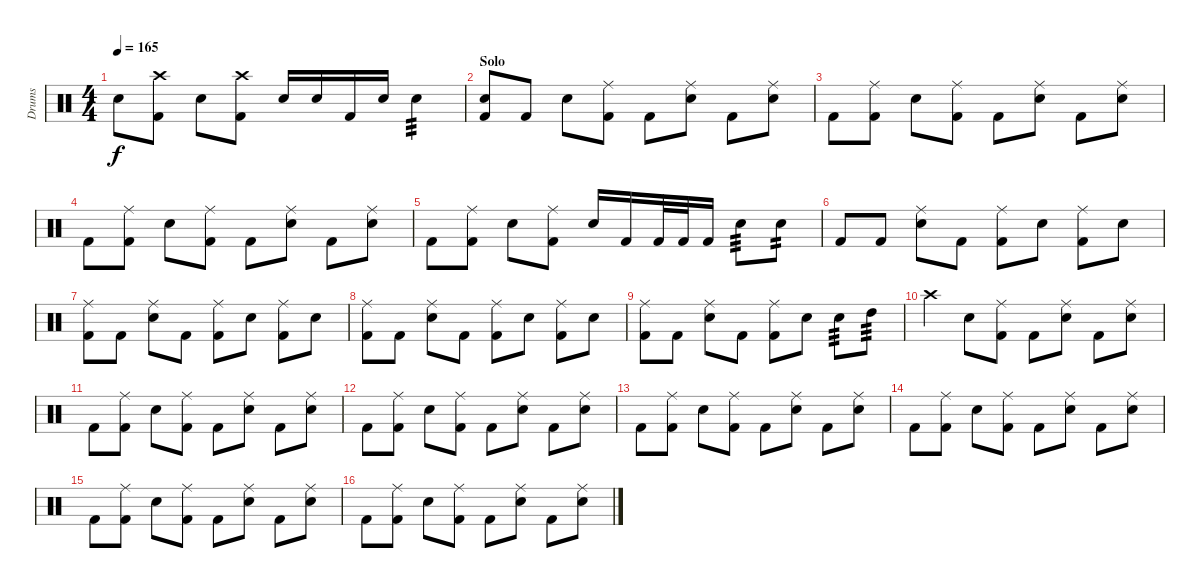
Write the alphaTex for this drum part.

\track ("Drums" "Drums") {instrument percussion}
\staff {score}
\articulation defaults
\ts (4 4)
\tempo 165
\clef neutral
\ks c "Electric Snare (hit)".8{dy f}
("Crash high (hit)" "Kick (hit) 2").8 "Electric Snare (hit)".8 ("Crash high (hit)" "Kick (hit) 2").8 "Electric Snare (hit)".16 "Electric Snare (hit)".16 "Kick (hit) 2".16 "Electric Snare (hit)".16 "Electric Snare (hit)".4{tp 3} |
\section ("" "Solo")
("Electric Snare (hit)" "Kick (hit) 2").8 "Kick (hit) 2".8 "Electric Snare (hit)".8 ("Ride (middle)" "Kick (hit) 2").8 "Kick (hit) 2".8 ("Ride (middle)" "Electric Snare (hit)").8 "Kick (hit) 2".8 ("Ride (middle)" "Electric Snare (hit)").8 |
"Kick (hit) 2".8 ("Ride (middle)" "Kick (hit) 2").8 "Electric Snare (hit)".8 ("Ride (middle)" "Kick (hit) 2").8 "Kick (hit) 2".8 ("Ride (middle)" "Electric Snare (hit)").8 "Kick (hit) 2".8 ("Ride (middle)" "Electric Snare (hit)").8 |
"Kick (hit) 2".8 ("Ride (middle)" "Kick (hit) 2").8 "Electric Snare (hit)".8 ("Ride (middle)" "Kick (hit) 2").8 "Kick (hit) 2".8 ("Ride (middle)" "Electric Snare (hit)").8 "Kick (hit) 2".8 ("Ride (middle)" "Electric Snare (hit)").8 |
"Kick (hit) 2".8 ("Ride (middle)" "Kick (hit) 2").8 "Electric Snare (hit)".8 ("Ride (middle)" "Kick (hit) 2").8 "Electric Snare (hit)".16 "Kick (hit) 2".16 "Kick (hit) 2".32 "Kick (hit) 2".32 "Kick (hit) 2".16 "Electric Snare (hit)".8{tp 3} "Electric Snare (hit)".8{tp 2} |
"Kick (hit) 2".8 "Kick (hit) 2".8 ("Ride (middle)" "Electric Snare (hit)").8 "Kick (hit) 2".8 ("Ride (middle)" "Kick (hit) 2").8 "Electric Snare (hit)".8 ("Ride (middle)" "Kick (hit) 2").8 "Electric Snare (hit)".8 |
("Ride (middle)" "Kick (hit) 2").8 "Kick (hit) 2".8 ("Ride (middle)" "Electric Snare (hit)").8 "Kick (hit) 2".8 ("Ride (middle)" "Kick (hit) 2").8 "Electric Snare (hit)".8 ("Ride (middle)" "Kick (hit) 2").8 "Electric Snare (hit)".8 |
("Ride (middle)" "Kick (hit) 2").8 "Kick (hit) 2".8 ("Ride (middle)" "Electric Snare (hit)").8 "Kick (hit) 2".8 ("Ride (middle)" "Kick (hit) 2").8 "Electric Snare (hit)".8 ("Ride (middle)" "Kick (hit) 2").8 "Electric Snare (hit)".8 |
("Ride (middle)" "Kick (hit) 2").8 "Kick (hit) 2".8 ("Ride (middle)" "Electric Snare (hit)").8 "Kick (hit) 2".8 ("Ride (middle)" "Kick (hit) 2").8 "Electric Snare (hit)".8 "Electric Snare (hit)".8{tp 3} "High Tom (hit)".8{tp 3} |
"Crash high (hit)".4 "Electric Snare (hit)".8 ("Ride (middle)" "Kick (hit) 2").8 "Kick (hit) 2".8 ("Ride (middle)" "Electric Snare (hit)").8 "Kick (hit) 2".8 ("Ride (middle)" "Electric Snare (hit)").8 |
"Kick (hit) 2".8 ("Ride (middle)" "Kick (hit) 2").8 "Electric Snare (hit)".8 ("Ride (middle)" "Kick (hit) 2").8 "Kick (hit) 2".8 ("Ride (middle)" "Electric Snare (hit)").8 "Kick (hit) 2".8 ("Ride (middle)" "Electric Snare (hit)").8 |
"Kick (hit) 2".8 ("Ride (middle)" "Kick (hit) 2").8 "Electric Snare (hit)".8 ("Ride (middle)" "Kick (hit) 2").8 "Kick (hit) 2".8 ("Ride (middle)" "Electric Snare (hit)").8 "Kick (hit) 2".8 ("Ride (middle)" "Electric Snare (hit)").8 |
"Kick (hit) 2".8 ("Ride (middle)" "Kick (hit) 2").8 "Electric Snare (hit)".8 ("Ride (middle)" "Kick (hit) 2").8 "Kick (hit) 2".8 ("Ride (middle)" "Electric Snare (hit)").8 "Kick (hit) 2".8 ("Ride (middle)" "Electric Snare (hit)").8 |
"Kick (hit) 2".8 ("Ride (middle)" "Kick (hit) 2").8 "Electric Snare (hit)".8 ("Ride (middle)" "Kick (hit) 2").8 "Kick (hit) 2".8 ("Ride (middle)" "Electric Snare (hit)").8 "Kick (hit) 2".8 ("Ride (middle)" "Electric Snare (hit)").8 |
"Kick (hit) 2".8 ("Ride (middle)" "Kick (hit) 2").8 "Electric Snare (hit)".8 ("Ride (middle)" "Kick (hit) 2").8 "Kick (hit) 2".8 ("Ride (middle)" "Electric Snare (hit)").8 "Kick (hit) 2".8 ("Ride (middle)" "Electric Snare (hit)").8 |
"Kick (hit) 2".8 ("Ride (middle)" "Kick (hit) 2").8 "Electric Snare (hit)".8 ("Ride (middle)" "Kick (hit) 2").8 "Kick (hit) 2".8 ("Ride (middle)" "Electric Snare (hit)").8 "Kick (hit) 2".8 ("Ride (middle)" "Electric Snare (hit)").8
